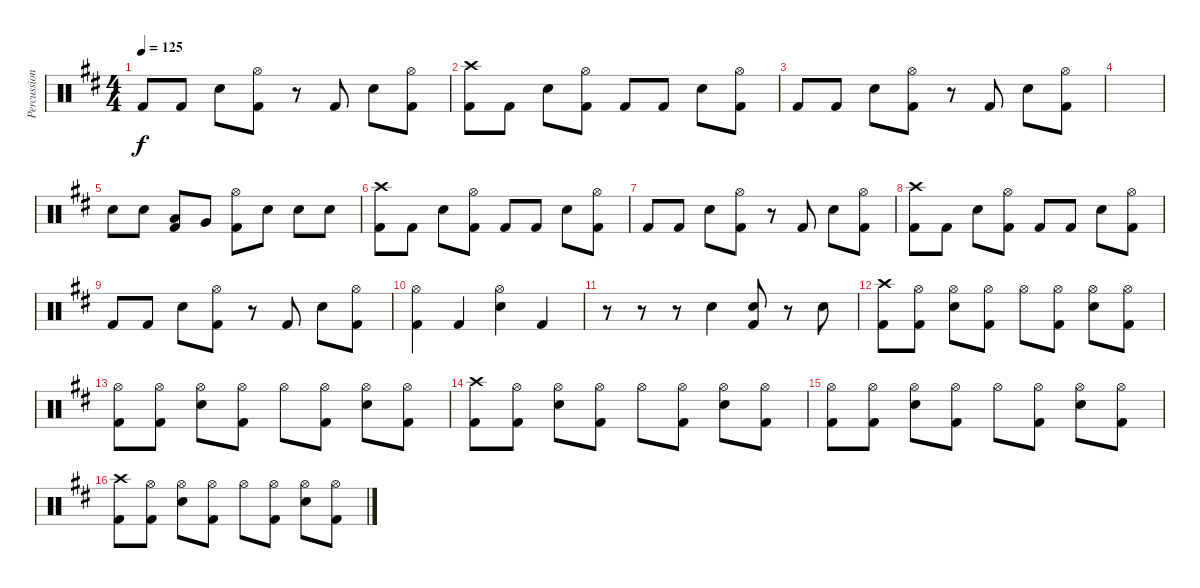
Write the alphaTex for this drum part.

\track ("Percussion" "Percussion") {instrument percussion}
\staff {score}
\articulation defaults
\ts (4 4)
\tempo 125
\clef neutral
\ks d "Kick (hit) 2".8{dy f} "Kick (hit) 2".8 "Electric Snare (hit)".8
("Hi-Hat (open)" "Kick (hit) 2").8 r.8 "Kick (hit) 2".8 "Electric Snare (hit)".8 ("Hi-Hat (open)" "Kick (hit) 2").8 |
("Crash high (hit)" "Kick (hit) 2").8 "Kick (hit) 2".8 "Electric Snare (hit)".8 ("Hi-Hat (open)" "Kick (hit) 2").8 "Kick (hit) 2".8 "Kick (hit) 2".8 "Electric Snare (hit)".8 ("Hi-Hat (open)" "Kick (hit) 2").8 |
"Kick (hit) 2".8 "Kick (hit) 2".8 "Electric Snare (hit)".8 ("Hi-Hat (open)" "Kick (hit) 2").8 r.8 "Kick (hit) 2".8 "Electric Snare (hit)".8 ("Hi-Hat (open)" "Kick (hit) 2").8 |
|
"Electric Snare (hit)".8 "Electric Snare (hit)".8 ("Low Tom (hit)" "Kick (hit) 2").8 "Very Low Tom (hit)".8 ("Hi-Hat (open)" "Kick (hit) 2").8 "Electric Snare (hit)".8 "Electric Snare (hit)".8 "Electric Snare (hit)".8 |
("Crash high (hit)" "Kick (hit) 2").8 "Kick (hit) 2".8 "Electric Snare (hit)".8 ("Hi-Hat (open)" "Kick (hit) 2").8 "Kick (hit) 2".8 "Kick (hit) 2".8 "Electric Snare (hit)".8 ("Hi-Hat (open)" "Kick (hit) 2").8 |
"Kick (hit) 2".8 "Kick (hit) 2".8 "Electric Snare (hit)".8 ("Hi-Hat (open)" "Kick (hit) 2").8 r.8 "Kick (hit) 2".8 "Electric Snare (hit)".8 ("Hi-Hat (open)" "Kick (hit) 2").8 |
("Crash high (hit)" "Kick (hit) 2").8 "Kick (hit) 2".8 "Electric Snare (hit)".8 ("Hi-Hat (open)" "Kick (hit) 2").8 "Kick (hit) 2".8 "Kick (hit) 2".8 "Electric Snare (hit)".8 ("Hi-Hat (open)" "Kick (hit) 2").8 |
"Kick (hit) 2".8 "Kick (hit) 2".8 "Electric Snare (hit)".8 ("Hi-Hat (open)" "Kick (hit) 2").8 r.8 "Kick (hit) 2".8 "Electric Snare (hit)".8 ("Hi-Hat (open)" "Kick (hit) 2").8 |
("Hi-Hat (open)" "Kick (hit) 2").4 "Kick (hit) 2".4 ("Hi-Hat (open)" "Electric Snare (hit)").4 "Kick (hit) 2".4 |
r.8 r.8 r.8 "Electric Snare (hit)".4 ("Electric Snare (hit)" "Kick (hit) 2").8 r.8 "Electric Snare (hit)".8 |
("Crash high (hit)" "Kick (hit) 2").8 ("Hi-Hat (open)" "Kick (hit) 2").8 ("Hi-Hat (open)" "Electric Snare (hit)").8 ("Hi-Hat (open)" "Kick (hit) 2").8 "Hi-Hat (open)".8 ("Hi-Hat (open)" "Kick (hit) 2").8 ("Hi-Hat (open)" "Electric Snare (hit)").8 ("Hi-Hat (open)" "Kick (hit) 2").8 |
("Hi-Hat (open)" "Kick (hit) 2").8 ("Hi-Hat (open)" "Kick (hit) 2").8 ("Hi-Hat (open)" "Electric Snare (hit)").8 ("Hi-Hat (open)" "Kick (hit) 2").8 "Hi-Hat (open)".8 ("Hi-Hat (open)" "Kick (hit) 2").8 ("Hi-Hat (open)" "Electric Snare (hit)").8 ("Hi-Hat (open)" "Kick (hit) 2").8 |
("Crash high (hit)" "Kick (hit) 2").8 ("Hi-Hat (open)" "Kick (hit) 2").8 ("Hi-Hat (open)" "Electric Snare (hit)").8 ("Hi-Hat (open)" "Kick (hit) 2").8 "Hi-Hat (open)".8 ("Hi-Hat (open)" "Kick (hit) 2").8 ("Hi-Hat (open)" "Electric Snare (hit)").8 ("Hi-Hat (open)" "Kick (hit) 2").8 |
("Hi-Hat (open)" "Kick (hit) 2").8 ("Hi-Hat (open)" "Kick (hit) 2").8 ("Hi-Hat (open)" "Electric Snare (hit)").8 ("Hi-Hat (open)" "Kick (hit) 2").8 "Hi-Hat (open)".8 ("Hi-Hat (open)" "Kick (hit) 2").8 ("Hi-Hat (open)" "Electric Snare (hit)").8 ("Hi-Hat (open)" "Kick (hit) 2").8 |
("Crash high (hit)" "Kick (hit) 2").8 ("Hi-Hat (open)" "Kick (hit) 2").8 ("Hi-Hat (open)" "Electric Snare (hit)").8 ("Hi-Hat (open)" "Kick (hit) 2").8 "Hi-Hat (open)".8 ("Hi-Hat (open)" "Kick (hit) 2").8 ("Hi-Hat (open)" "Electric Snare (hit)").8 ("Hi-Hat (open)" "Kick (hit) 2").8
